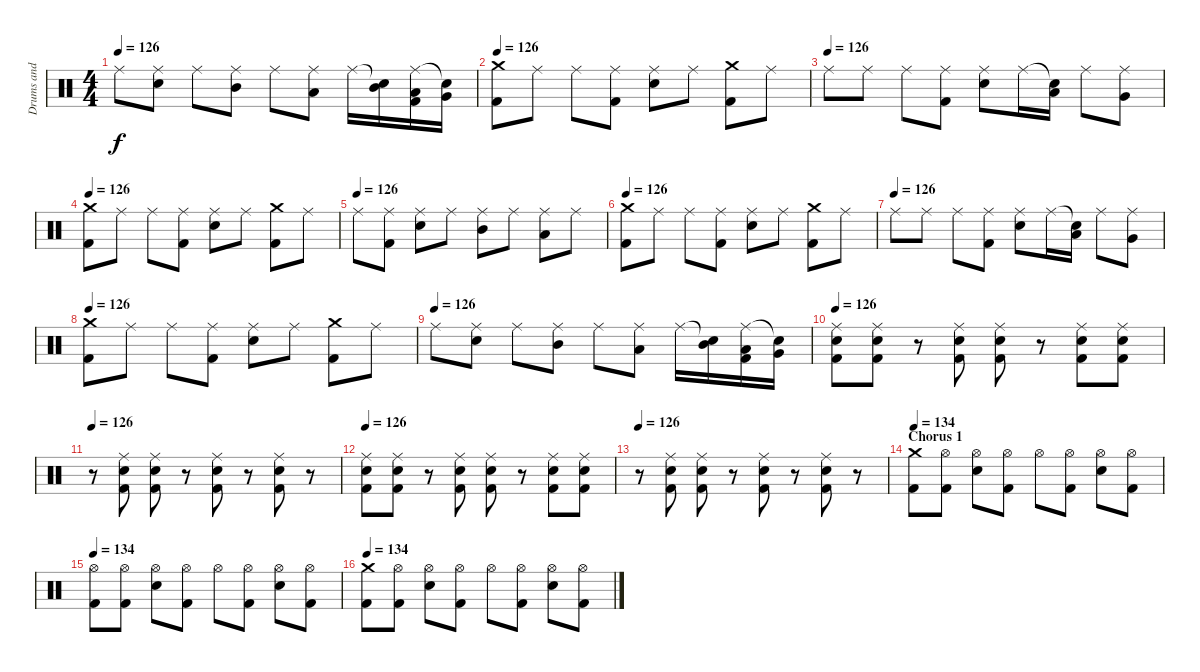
\track ("Drums and Percussion" "Drums and ") {instrument percussion}
\staff {score}
\articulation defaults
\ts (4 4)
\tempo 126
\clef neutral
\ks c "Ride (middle)".8{dy f}
("Ride (middle)" "Electric Snare (hit)").8 "Ride (middle)".8 ("Ride (middle)" "Mid Tom (hit)").8 "Ride (middle)".8 ("Ride (middle)" "Low Tom (hit)").8 "Ride (middle)".16 ("Snare (hit)"{t} "Mid Tom (hit)").16 ("Ride (middle)" "Low Tom (hit)" "Kick (hit) 2").16 ("Snare (hit)"{t} "Very Low Tom (hit)").16 |
\tempo 126
("Crash medium (hit)" "Kick (hit) 2").8 "Ride (middle)".8 "Ride (middle)".8 ("Ride (middle)" "Kick (hit) 2").8 ("Ride (middle)" "Electric Snare (hit)").8 "Ride (middle)".8 ("Crash medium (hit)" "Kick (hit) 2").8 "Ride (middle)".8 |
\tempo (126)
"Ride (middle)".8 "Ride (middle)".8 "Ride (middle)".8 ("Ride (middle)" "Kick (hit) 2").8 ("Ride (middle)" "Electric Snare (hit)").8 "Ride (middle)".16 ("Snare (hit)"{t} "Low Tom (hit)").16 "Ride (middle)".8 ("Ride (middle)" "Very Low Tom (hit)").8 |
\tempo 126
("Crash medium (hit)" "Kick (hit) 2").8 "Ride (middle)".8 "Ride (middle)".8 ("Ride (middle)" "Kick (hit) 2").8 ("Ride (middle)" "Electric Snare (hit)").8 "Ride (middle)".8 ("Crash medium (hit)" "Kick (hit) 2").8 "Ride (middle)".8 |
\tempo (126)
"Ride (middle)".8 ("Ride (middle)" "Kick (hit) 2").8 ("Ride (middle)" "Electric Snare (hit)").8 "Ride (middle)".8 ("Ride (middle)" "Mid Tom (hit)").8 "Ride (middle)".8 ("Ride (middle)" "Low Tom (hit)").8 "Ride (middle)".8 |
\tempo 126
("Crash medium (hit)" "Kick (hit) 2").8 "Ride (middle)".8 "Ride (middle)".8 ("Ride (middle)" "Kick (hit) 2").8 ("Ride (middle)" "Electric Snare (hit)").8 "Ride (middle)".8 ("Crash medium (hit)" "Kick (hit) 2").8 "Ride (middle)".8 |
\tempo (126)
"Ride (middle)".8 "Ride (middle)".8 "Ride (middle)".8 ("Ride (middle)" "Kick (hit) 2").8 ("Ride (middle)" "Electric Snare (hit)").8 "Ride (middle)".16 ("Snare (hit)"{t} "Low Tom (hit)").16 "Ride (middle)".8 ("Ride (middle)" "Very Low Tom (hit)").8 |
\tempo 126
("Crash medium (hit)" "Kick (hit) 2").8 "Ride (middle)".8 "Ride (middle)".8 ("Ride (middle)" "Kick (hit) 2").8 ("Ride (middle)" "Electric Snare (hit)").8 "Ride (middle)".8 ("Crash medium (hit)" "Kick (hit) 2").8 "Ride (middle)".8 |
\tempo (126)
"Ride (middle)".8 ("Ride (middle)" "Electric Snare (hit)").8 "Ride (middle)".8 ("Ride (middle)" "Mid Tom (hit)").8 "Ride (middle)".8 ("Ride (middle)" "Low Tom (hit)").8 "Ride (middle)".16 ("Snare (hit)"{t} "Mid Tom (hit)").16 ("Ride (middle)" "Low Tom (hit)" "Kick (hit) 2").16 ("Snare (hit)"{t} "Very Low Tom (hit)").16 |
\tempo 126
("Ride (middle)" "Electric Snare (hit)" "Kick (hit) 2").8 ("Ride (middle)" "Electric Snare (hit)" "Kick (hit) 2").8 r.8 ("Ride (middle)" "Electric Snare (hit)" "Kick (hit) 2").8 ("Ride (middle)" "Electric Snare (hit)" "Kick (hit) 2").8 r.8 ("Ride (middle)" "Electric Snare (hit)" "Kick (hit) 2").8 ("Ride (middle)" "Electric Snare (hit)" "Kick (hit) 2").8 |
\tempo 126
r.8 ("Ride (middle)" "Electric Snare (hit)" "Kick (hit) 2").8 ("Ride (middle)" "Electric Snare (hit)" "Kick (hit) 2").8 r.8 ("Ride (middle)" "Electric Snare (hit)" "Kick (hit) 2").8 r.8 ("Ride (middle)" "Electric Snare (hit)" "Kick (hit) 2").8 r.8 |
\tempo 126
("Ride (middle)" "Electric Snare (hit)" "Kick (hit) 2").8 ("Ride (middle)" "Electric Snare (hit)" "Kick (hit) 2").8 r.8 ("Ride (middle)" "Electric Snare (hit)" "Kick (hit) 2").8 ("Ride (middle)" "Electric Snare (hit)" "Kick (hit) 2").8 r.8 ("Ride (middle)" "Electric Snare (hit)" "Kick (hit) 2").8 ("Ride (middle)" "Electric Snare (hit)" "Kick (hit) 2").8 |
\tempo 126
r.8 ("Ride (middle)" "Electric Snare (hit)" "Kick (hit) 2").8 ("Ride (middle)" "Electric Snare (hit)" "Kick (hit) 2").8 r.8 ("Ride (middle)" "Electric Snare (hit)" "Kick (hit) 2").8 r.8 ("Ride (middle)" "Electric Snare (hit)" "Kick (hit) 2").8 r.8 |
\section ("" "Chorus 1")
\tempo 134
("Crash medium (hit)" "Kick (hit) 2").8 ("Hi-Hat (open)" "Kick (hit) 2").8 ("Hi-Hat (open)" "Electric Snare (hit)").8 ("Hi-Hat (open)" "Kick (hit) 2").8 "Hi-Hat (open)".8 ("Hi-Hat (open)" "Kick (hit) 2").8 ("Hi-Hat (open)" "Electric Snare (hit)").8 ("Hi-Hat (open)" "Kick (hit) 2").8 |
\tempo 134
("Hi-Hat (open)" "Kick (hit) 2").8 ("Hi-Hat (open)" "Kick (hit) 2").8 ("Hi-Hat (open)" "Electric Snare (hit)").8 ("Hi-Hat (open)" "Kick (hit) 2").8 "Hi-Hat (open)".8 ("Hi-Hat (open)" "Kick (hit) 2").8 ("Hi-Hat (open)" "Electric Snare (hit)").8 ("Hi-Hat (open)" "Kick (hit) 2").8 |
\tempo 134
("Crash medium (hit)" "Kick (hit) 2").8 ("Hi-Hat (open)" "Kick (hit) 2").8 ("Hi-Hat (open)" "Electric Snare (hit)").8 ("Hi-Hat (open)" "Kick (hit) 2").8 "Hi-Hat (open)".8 ("Hi-Hat (open)" "Kick (hit) 2").8 ("Hi-Hat (open)" "Electric Snare (hit)").8 ("Hi-Hat (open)" "Kick (hit) 2").8
